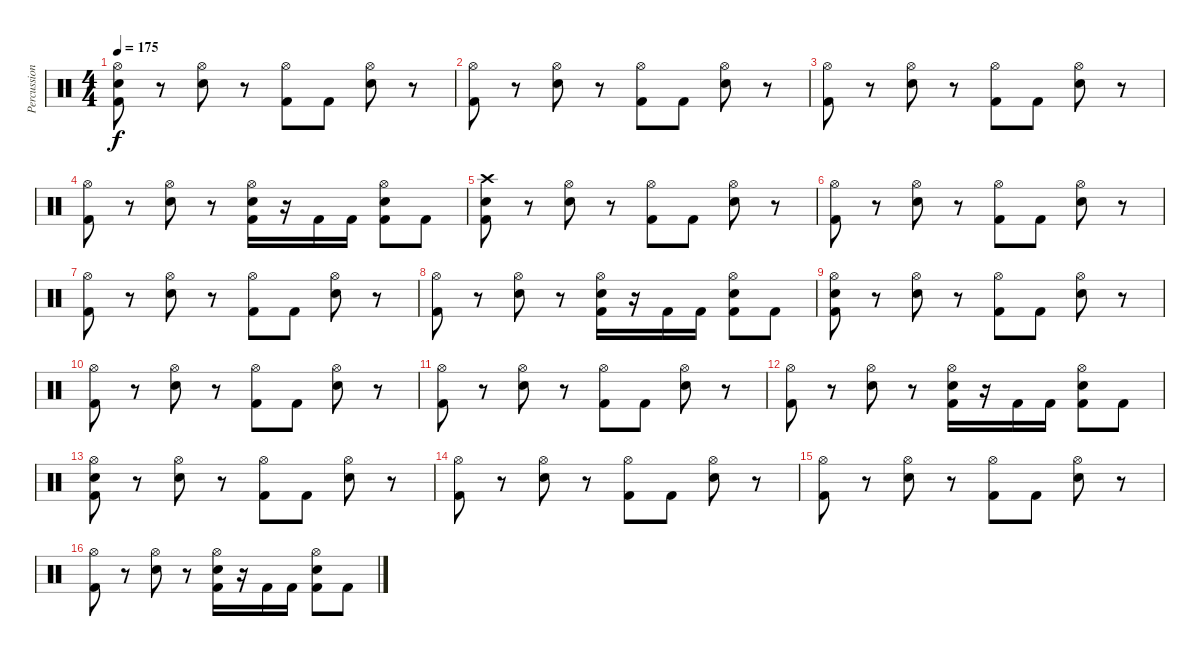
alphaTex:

\track ("Percussions" "Percussion") {instrument percussion}
\staff {score}
\articulation defaults
\ts (4 4)
\tempo 175
\clef neutral
\ks c
("Kick (hit) 2" "Electric Snare (hit)" "Hi-Hat (open)").8{dy f} r.8 ("Electric Snare (hit)" "Hi-Hat (open)").8 r.8 ("Kick (hit) 2" "Hi-Hat (open)").8 "Kick (hit) 2".8 ("Electric Snare (hit)" "Hi-Hat (open)").8 r.8 |
("Kick (hit) 2" "Hi-Hat (open)").8 r.8 ("Electric Snare (hit)" "Hi-Hat (open)").8 r.8 ("Kick (hit) 2" "Hi-Hat (open)").8 "Kick (hit) 2".8 ("Electric Snare (hit)" "Hi-Hat (open)").8 r.8 |
("Kick (hit) 2" "Hi-Hat (open)").8 r.8 ("Electric Snare (hit)" "Hi-Hat (open)").8 r.8 ("Kick (hit) 2" "Hi-Hat (open)").8 "Kick (hit) 2".8 ("Electric Snare (hit)" "Hi-Hat (open)").8 r.8 |
("Kick (hit) 2" "Hi-Hat (open)").8 r.8 ("Electric Snare (hit)" "Hi-Hat (open)").8 r.8 ("Kick (hit) 2" "Electric Snare (hit)" "Hi-Hat (open)").16 r.16 "Kick (hit) 2".16 "Kick (hit) 2".16 ("Kick (hit) 2" "Electric Snare (hit)" "Hi-Hat (open)").8 "Kick (hit) 2".8 |
("Kick (hit) 2" "Electric Snare (hit)" "Crash high (hit)").8 r.8 ("Electric Snare (hit)" "Hi-Hat (open)").8 r.8 ("Kick (hit) 2" "Hi-Hat (open)").8 "Kick (hit) 2".8 ("Electric Snare (hit)" "Hi-Hat (open)").8 r.8 |
("Kick (hit) 2" "Hi-Hat (open)").8 r.8 ("Electric Snare (hit)" "Hi-Hat (open)").8 r.8 ("Kick (hit) 2" "Hi-Hat (open)").8 "Kick (hit) 2".8 ("Electric Snare (hit)" "Hi-Hat (open)").8 r.8 |
("Kick (hit) 2" "Hi-Hat (open)").8 r.8 ("Electric Snare (hit)" "Hi-Hat (open)").8 r.8 ("Kick (hit) 2" "Hi-Hat (open)").8 "Kick (hit) 2".8 ("Electric Snare (hit)" "Hi-Hat (open)").8 r.8 |
("Kick (hit) 2" "Hi-Hat (open)").8 r.8 ("Electric Snare (hit)" "Hi-Hat (open)").8 r.8 ("Kick (hit) 2" "Electric Snare (hit)" "Hi-Hat (open)").16 r.16 "Kick (hit) 2".16 "Kick (hit) 2".16 ("Kick (hit) 2" "Electric Snare (hit)" "Hi-Hat (open)").8 "Kick (hit) 2".8 |
("Kick (hit) 2" "Electric Snare (hit)" "Hi-Hat (open)").8 r.8 ("Electric Snare (hit)" "Hi-Hat (open)").8 r.8 ("Kick (hit) 2" "Hi-Hat (open)").8 "Kick (hit) 2".8 ("Electric Snare (hit)" "Hi-Hat (open)").8 r.8 |
("Kick (hit) 2" "Hi-Hat (open)").8 r.8 ("Electric Snare (hit)" "Hi-Hat (open)").8 r.8 ("Kick (hit) 2" "Hi-Hat (open)").8 "Kick (hit) 2".8 ("Electric Snare (hit)" "Hi-Hat (open)").8 r.8 |
("Kick (hit) 2" "Hi-Hat (open)").8 r.8 ("Electric Snare (hit)" "Hi-Hat (open)").8 r.8 ("Kick (hit) 2" "Hi-Hat (open)").8 "Kick (hit) 2".8 ("Electric Snare (hit)" "Hi-Hat (open)").8 r.8 |
("Kick (hit) 2" "Hi-Hat (open)").8 r.8 ("Electric Snare (hit)" "Hi-Hat (open)").8 r.8 ("Kick (hit) 2" "Electric Snare (hit)" "Hi-Hat (open)").16 r.16 "Kick (hit) 2".16 "Kick (hit) 2".16 ("Kick (hit) 2" "Electric Snare (hit)" "Hi-Hat (open)").8 "Kick (hit) 2".8 |
("Kick (hit) 2" "Electric Snare (hit)" "Hi-Hat (open)").8 r.8 ("Electric Snare (hit)" "Hi-Hat (open)").8 r.8 ("Kick (hit) 2" "Hi-Hat (open)").8 "Kick (hit) 2".8 ("Electric Snare (hit)" "Hi-Hat (open)").8 r.8 |
("Kick (hit) 2" "Hi-Hat (open)").8 r.8 ("Electric Snare (hit)" "Hi-Hat (open)").8 r.8 ("Kick (hit) 2" "Hi-Hat (open)").8 "Kick (hit) 2".8 ("Electric Snare (hit)" "Hi-Hat (open)").8 r.8 |
("Kick (hit) 2" "Hi-Hat (open)").8 r.8 ("Electric Snare (hit)" "Hi-Hat (open)").8 r.8 ("Kick (hit) 2" "Hi-Hat (open)").8 "Kick (hit) 2".8 ("Electric Snare (hit)" "Hi-Hat (open)").8 r.8 |
("Kick (hit) 2" "Hi-Hat (open)").8 r.8 ("Electric Snare (hit)" "Hi-Hat (open)").8 r.8 ("Kick (hit) 2" "Electric Snare (hit)" "Hi-Hat (open)").16 r.16 "Kick (hit) 2".16 "Kick (hit) 2".16 ("Kick (hit) 2" "Electric Snare (hit)" "Hi-Hat (open)").8 "Kick (hit) 2".8
